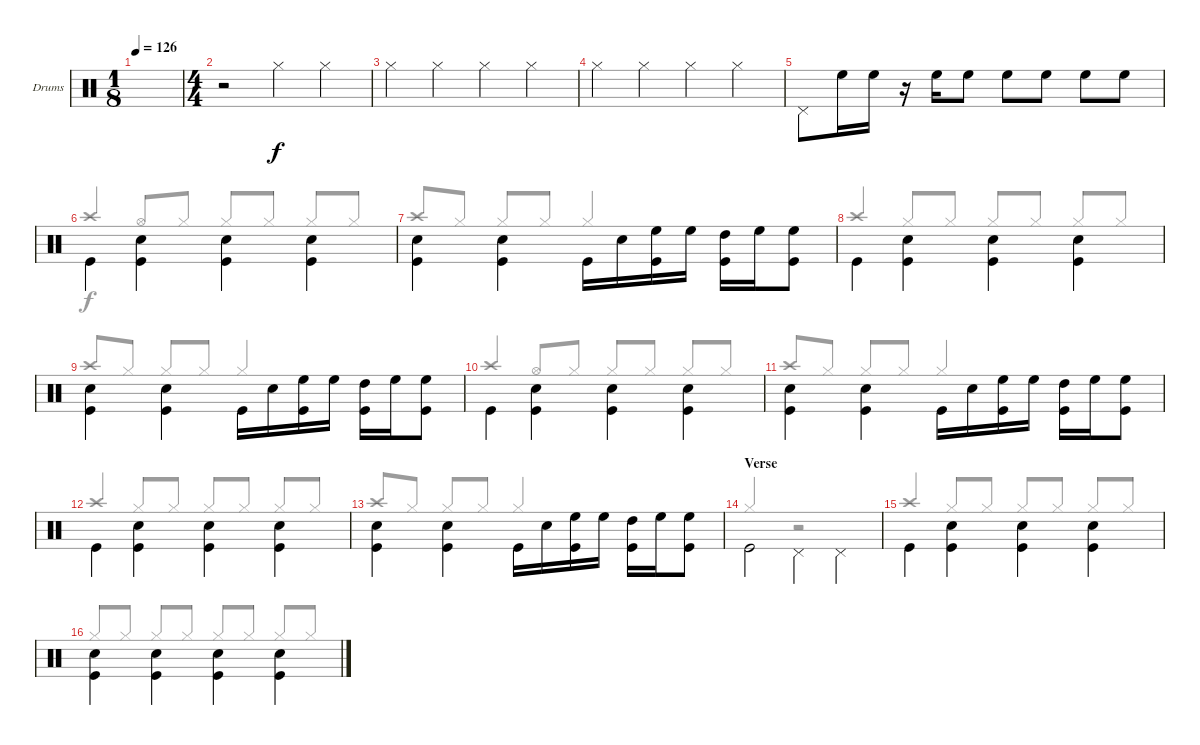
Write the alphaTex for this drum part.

\defaultSystemsLayout 4
\bracketExtendMode groupsimilarinstruments
\firstSystemTrackNameOrientation horizontal
\otherSystemsTrackNameOrientation horizontal
\track ("PETER CRISS" "Drums") {instrument percussion}
\staff {score}
\articulation defaults
\voice
\ts (1 8)
\tempo 126
\clef neutral
\ks c
|
\ts (4 4)
r.2 "Hi-Hat (closed)".4 "Hi-Hat (closed)".4 |
"Hi-Hat (closed)".4 "Hi-Hat (closed)".4 "Hi-Hat (closed)".4 "Hi-Hat (closed)".4 |
"Hi-Hat (closed)".4 "Hi-Hat (closed)".4 "Hi-Hat (closed)".4 "Hi-Hat (closed)".4 |
"Pedal Hi-Hat (hit)".8{beam invert} "High Floor Tom (hit)".16 "High Floor Tom (hit)".16 r.16 "High Floor Tom (hit)".16 "High Floor Tom (hit)".8 "High Floor Tom (hit)".8 "High Floor Tom (hit)".8 "High Floor Tom (hit)".8 "High Floor Tom (hit)".8 |
"Kick (hit)".4{beam invert} ("Kick (hit)" "Snare (hit) 2").4{beam invert} ("Kick (hit)" "Snare (hit) 2").4{beam invert} ("Kick (hit)" "Snare (hit) 2").4{beam invert} |
("Kick (hit)" "Snare (hit) 2").4{beam invert} ("Kick (hit)" "Snare (hit) 2").4{beam invert} "Kick (hit)".16{beam invert} "Snare (hit) 2".16 ("High Floor Tom (hit)" "Kick (hit)").16 "High Floor Tom (hit)".16 ("High Tom (hit)" "Kick (hit)").16{beam invert} "High Floor Tom (hit)".16 ("High Floor Tom (hit)" "Kick (hit)").8 |
"Kick (hit)".4{beam invert} ("Kick (hit)" "Snare (hit) 2").4{beam invert} ("Kick (hit)" "Snare (hit) 2").4{beam invert} ("Kick (hit)" "Snare (hit) 2").4{beam invert} |
("Kick (hit)" "Snare (hit) 2").4{beam invert} ("Kick (hit)" "Snare (hit) 2").4{beam invert} "Kick (hit)".16{beam invert} "Snare (hit) 2".16 ("High Floor Tom (hit)" "Kick (hit)").16 "High Floor Tom (hit)".16 ("High Tom (hit)" "Kick (hit)").16{beam invert} "High Floor Tom (hit)".16 ("High Floor Tom (hit)" "Kick (hit)").8 |
"Kick (hit)".4{beam invert} ("Kick (hit)" "Snare (hit) 2").4{beam invert} ("Kick (hit)" "Snare (hit) 2").4{beam invert} ("Kick (hit)" "Snare (hit) 2").4{beam invert} |
("Kick (hit)" "Snare (hit) 2").4{beam invert} ("Kick (hit)" "Snare (hit) 2").4{beam invert} "Kick (hit)".16{beam invert} "Snare (hit) 2".16 ("High Floor Tom (hit)" "Kick (hit)").16 "High Floor Tom (hit)".16 ("High Tom (hit)" "Kick (hit)").16{beam invert} "High Floor Tom (hit)".16 ("High Floor Tom (hit)" "Kick (hit)").8 |
"Kick (hit)".4{beam invert} ("Kick (hit)" "Snare (hit) 2").4{beam invert} ("Kick (hit)" "Snare (hit) 2").4{beam invert} ("Kick (hit)" "Snare (hit) 2").4{beam invert} |
("Kick (hit)" "Snare (hit) 2").4{beam invert} ("Kick (hit)" "Snare (hit) 2").4{beam invert} "Kick (hit)".16{beam invert} "Snare (hit) 2".16 ("High Floor Tom (hit)" "Kick (hit)").16 "High Floor Tom (hit)".16 ("High Tom (hit)" "Kick (hit)").16{beam invert} "High Floor Tom (hit)".16 ("High Floor Tom (hit)" "Kick (hit)").8 |
\section ("" "Verse")
"Kick (hit)".2{beam invert} "Pedal Hi-Hat (hit)".4{beam invert} "Pedal Hi-Hat (hit)".4{beam invert} |
"Kick (hit)".4{beam invert} ("Kick (hit)" "Snare (hit) 2").4{beam invert} ("Kick (hit)" "Snare (hit) 2").4{beam invert} ("Kick (hit)" "Snare (hit) 2").4{beam invert} |
("Kick (hit)" "Snare (hit) 2").4{beam invert} ("Kick (hit)" "Snare (hit) 2").4{beam invert} ("Kick (hit)" "Snare (hit) 2").4{beam invert} ("Kick (hit)" "Snare (hit) 2").4{beam invert}
\voice
\clef neutral
\ottava regular
\simile none
\ks c
|
|
|
|
|
"Crash high (hit)".4{beam invert} "Hi-Hat (open)".8{beam invert} "Hi-Hat (closed)".8 "Hi-Hat (closed)".8{beam invert} "Hi-Hat (closed)".8 "Hi-Hat (closed)".8{beam invert} "Hi-Hat (closed)".8 |
"Crash high (hit)".8{beam invert} "Hi-Hat (closed)".8 "Hi-Hat (closed)".8{beam invert} "Hi-Hat (closed)".8 "Hi-Hat (closed)".2{beam invert} |
"Crash high (hit)".4{beam invert} "Hi-Hat (closed)".8{beam invert} "Hi-Hat (closed)".8 "Hi-Hat (closed)".8{beam invert} "Hi-Hat (closed)".8 "Hi-Hat (closed)".8{beam invert} "Hi-Hat (closed)".8 |
"Crash high (hit)".8{beam invert} "Hi-Hat (closed)".8 "Hi-Hat (closed)".8{beam invert} "Hi-Hat (closed)".8 "Hi-Hat (closed)".2{beam invert} |
"Crash high (hit)".4{beam invert} "Hi-Hat (open)".8{beam invert} "Hi-Hat (closed)".8 "Hi-Hat (closed)".8{beam invert} "Hi-Hat (closed)".8 "Hi-Hat (closed)".8{beam invert} "Hi-Hat (closed)".8 |
"Crash high (hit)".8{beam invert} "Hi-Hat (closed)".8 "Hi-Hat (closed)".8{beam invert} "Hi-Hat (closed)".8 "Hi-Hat (closed)".2{beam invert} |
"Crash high (hit)".4{beam invert} "Hi-Hat (closed)".8{beam invert} "Hi-Hat (closed)".8 "Hi-Hat (closed)".8{beam invert} "Hi-Hat (closed)".8 "Hi-Hat (closed)".8{beam invert} "Hi-Hat (closed)".8 |
"Crash high (hit)".8{beam invert} "Hi-Hat (closed)".8 "Hi-Hat (closed)".8{beam invert} "Hi-Hat (closed)".8 "Hi-Hat (closed)".2{beam invert} |
"Hi-Hat (closed)".2{beam invert} r.2 |
"Crash high (hit)".4{beam invert} "Hi-Hat (closed)".8{beam invert} "Hi-Hat (closed)".8 "Hi-Hat (closed)".8{beam invert} "Hi-Hat (closed)".8 "Hi-Hat (closed)".8{beam invert} "Hi-Hat (closed)".8 |
"Hi-Hat (closed)".8{beam invert} "Hi-Hat (closed)".8 "Hi-Hat (closed)".8{beam invert} "Hi-Hat (closed)".8 "Hi-Hat (closed)".8{beam invert} "Hi-Hat (closed)".8 "Hi-Hat (closed)".8{beam invert} "Hi-Hat (closed)".8
